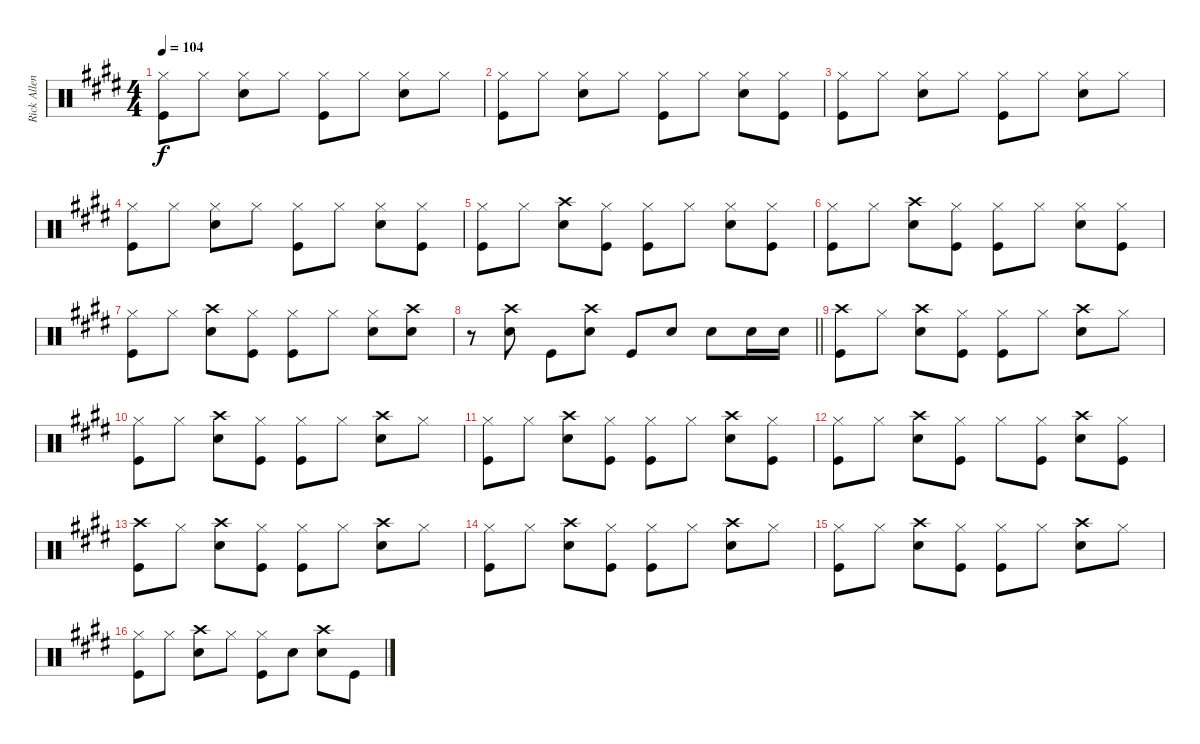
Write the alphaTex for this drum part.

\track ("Rick Allen" "Rick Allen") {instrument percussion}
\staff {score}
\articulation defaults
\ts (4 4)
\tempo 104
\clef neutral
\ks e
("Hi-Hat (closed)" "Kick (hit)").8{dy f} "Hi-Hat (closed)".8 ("Hi-Hat (closed)" "Snare (hit) 2").8 "Hi-Hat (closed)".8 ("Hi-Hat (closed)" "Kick (hit)").8 "Hi-Hat (closed)".8 ("Hi-Hat (closed)" "Snare (hit) 2").8 "Hi-Hat (closed)".8 |
("Hi-Hat (closed)" "Kick (hit)").8 "Hi-Hat (closed)".8 ("Hi-Hat (closed)" "Snare (hit) 2").8 "Hi-Hat (closed)".8 ("Hi-Hat (closed)" "Kick (hit)").8 "Hi-Hat (closed)".8 ("Hi-Hat (closed)" "Snare (hit) 2").8 ("Hi-Hat (closed)" "Kick (hit)").8 |
("Hi-Hat (closed)" "Kick (hit)").8 "Hi-Hat (closed)".8 ("Hi-Hat (closed)" "Snare (hit) 2").8 "Hi-Hat (closed)".8 ("Hi-Hat (closed)" "Kick (hit)").8 "Hi-Hat (closed)".8 ("Hi-Hat (closed)" "Snare (hit) 2").8 "Hi-Hat (closed)".8 |
("Hi-Hat (closed)" "Kick (hit)").8 "Hi-Hat (closed)".8 ("Hi-Hat (closed)" "Snare (hit) 2").8 "Hi-Hat (closed)".8 ("Hi-Hat (closed)" "Kick (hit)").8 "Hi-Hat (closed)".8 ("Hi-Hat (closed)" "Snare (hit) 2").8 ("Hi-Hat (closed)" "Kick (hit)").8 |
("Hi-Hat (closed)" "Kick (hit)").8 "Hi-Hat (closed)".8 ("Crash high (hit)" "Snare (hit) 2").8 ("Hi-Hat (closed)" "Kick (hit)").8 ("Hi-Hat (closed)" "Kick (hit)").8 "Hi-Hat (closed)".8 ("Hi-Hat (closed)" "Snare (hit) 2").8 ("Hi-Hat (closed)" "Kick (hit)").8 |
("Hi-Hat (closed)" "Kick (hit)").8 "Hi-Hat (closed)".8 ("Crash high (hit)" "Snare (hit) 2").8 ("Hi-Hat (closed)" "Kick (hit)").8 ("Hi-Hat (closed)" "Kick (hit)").8 "Hi-Hat (closed)".8 ("Hi-Hat (closed)" "Snare (hit) 2").8 ("Hi-Hat (closed)" "Kick (hit)").8 |
("Hi-Hat (closed)" "Kick (hit)").8 "Hi-Hat (closed)".8 ("Crash high (hit)" "Snare (hit) 2").8 ("Hi-Hat (closed)" "Kick (hit)").8 ("Hi-Hat (closed)" "Kick (hit)").8 "Hi-Hat (closed)".8 ("Hi-Hat (closed)" "Snare (hit) 2").8 ("Crash high (hit)" "Snare (hit) 2").8 |
\barLineRight lightlight
r.8 ("Crash high (hit)" "Snare (hit) 2").8 "Kick (hit)".8 ("Crash high (hit)" "Snare (hit) 2").8 "Kick (hit)".8 "Snare (hit) 2".8 "Snare (hit) 2".8 "Snare (hit) 2".16 "Snare (hit) 2".16 |
("Crash high (hit)" "Kick (hit)").8 "Hi-Hat (closed)".8 ("Crash high (hit)" "Snare (hit) 2").8 ("Hi-Hat (closed)" "Kick (hit)").8 ("Hi-Hat (closed)" "Kick (hit)").8 "Hi-Hat (closed)".8 ("Crash high (hit)" "Snare (hit) 2").8 "Hi-Hat (closed)".8 |
("Hi-Hat (closed)" "Kick (hit)").8 "Hi-Hat (closed)".8 ("Crash high (hit)" "Snare (hit) 2").8 ("Hi-Hat (closed)" "Kick (hit)").8 ("Hi-Hat (closed)" "Kick (hit)").8 "Hi-Hat (closed)".8 ("Crash high (hit)" "Snare (hit) 2").8 "Hi-Hat (closed)".8 |
("Hi-Hat (closed)" "Kick (hit)").8 "Hi-Hat (closed)".8 ("Crash high (hit)" "Snare (hit) 2").8 ("Hi-Hat (closed)" "Kick (hit)").8 ("Hi-Hat (closed)" "Kick (hit)").8 "Hi-Hat (closed)".8 ("Crash high (hit)" "Snare (hit) 2").8 ("Hi-Hat (closed)" "Kick (hit)").8 |
("Hi-Hat (closed)" "Kick (hit)").8 "Hi-Hat (closed)".8 ("Crash high (hit)" "Snare (hit) 2").8 ("Hi-Hat (closed)" "Kick (hit)").8 "Hi-Hat (closed)".8 ("Hi-Hat (closed)" "Kick (hit)").8 ("Crash high (hit)" "Snare (hit) 2").8 ("Hi-Hat (closed)" "Kick (hit)").8 |
("Crash high (hit)" "Kick (hit)").8 "Hi-Hat (closed)".8 ("Crash high (hit)" "Snare (hit) 2").8 ("Hi-Hat (closed)" "Kick (hit)").8 ("Hi-Hat (closed)" "Kick (hit)").8 "Hi-Hat (closed)".8 ("Crash high (hit)" "Snare (hit) 2").8 "Hi-Hat (closed)".8 |
("Hi-Hat (closed)" "Kick (hit)").8 "Hi-Hat (closed)".8 ("Crash high (hit)" "Snare (hit) 2").8 ("Hi-Hat (closed)" "Kick (hit)").8 ("Hi-Hat (closed)" "Kick (hit)").8 "Hi-Hat (closed)".8 ("Crash high (hit)" "Snare (hit) 2").8 "Hi-Hat (closed)".8 |
("Hi-Hat (closed)" "Kick (hit)").8 "Hi-Hat (closed)".8 ("Crash high (hit)" "Snare (hit) 2").8 ("Hi-Hat (closed)" "Kick (hit)").8 ("Hi-Hat (closed)" "Kick (hit)").8 "Hi-Hat (closed)".8 ("Crash high (hit)" "Snare (hit) 2").8 "Hi-Hat (closed)".8 |
("Hi-Hat (closed)" "Kick (hit)").8 "Hi-Hat (closed)".8 ("Crash high (hit)" "Snare (hit) 2").8 "Hi-Hat (closed)".8 ("Hi-Hat (closed)" "Kick (hit)").8 "Snare (hit) 2".8 ("Crash high (hit)" "Snare (hit) 2").8 "Kick (hit)".8
